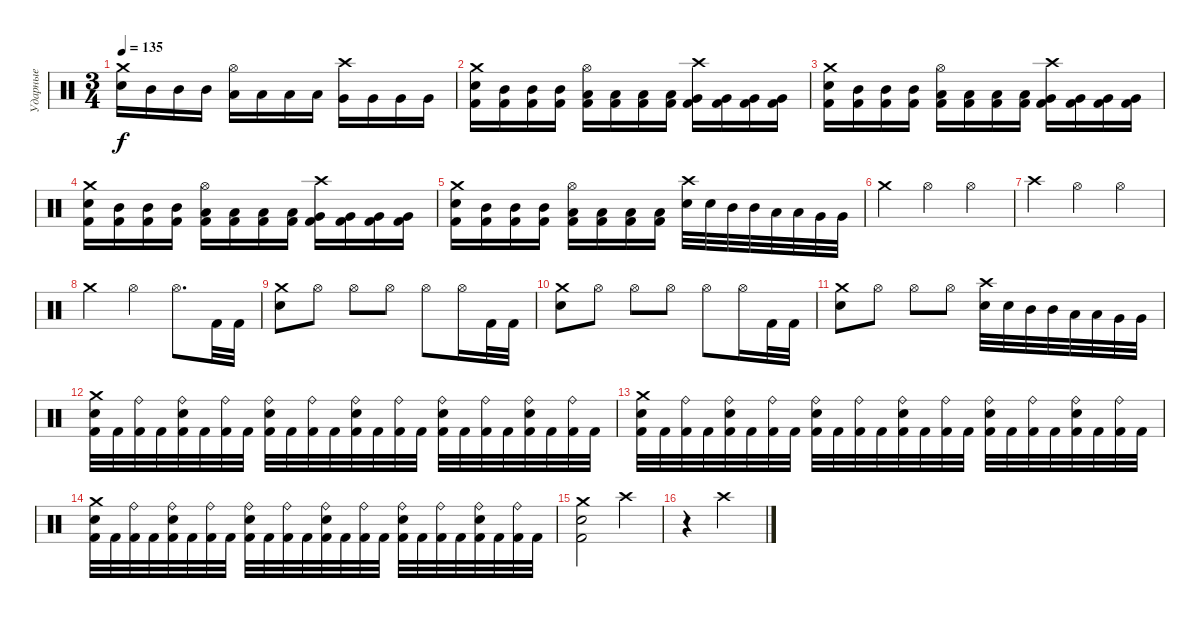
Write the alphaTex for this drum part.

\track ("Ударные" "Ударные") {instrument percussion}
\staff {score}
\articulation defaults
\ts (3 4)
\tempo 135
\clef neutral
\ks c
("Crash medium (hit)" "Electric Snare (hit)").16{dy f} "Mid Tom (hit)".16 "Mid Tom (hit)".16 "Mid Tom (hit)".16 ("Hi-Hat (open)" "Low Tom (hit)").16 "Low Tom (hit)".16 "Low Tom (hit)".16 "Low Tom (hit)".16 ("Crash high (hit)" "Very Low Tom (hit)").16 "Very Low Tom (hit)".16 "Very Low Tom (hit)".16 "Very Low Tom (hit)".16 |
("Crash medium (hit)" "Electric Snare (hit)" "Kick (hit) 2").16 ("Mid Tom (hit)" "Kick (hit) 2").16 ("Mid Tom (hit)" "Kick (hit) 2").16 ("Mid Tom (hit)" "Kick (hit) 2").16 ("Hi-Hat (open)" "Low Tom (hit)" "Kick (hit) 2").16 ("Low Tom (hit)" "Kick (hit) 2").16 ("Low Tom (hit)" "Kick (hit) 2").16 ("Low Tom (hit)" "Kick (hit) 2").16 ("Crash high (hit)" "Very Low Tom (hit)" "Kick (hit) 2").16 ("Very Low Tom (hit)" "Kick (hit) 2").16 ("Very Low Tom (hit)" "Kick (hit) 2").16 ("Very Low Tom (hit)" "Kick (hit) 2").16 |
("Crash medium (hit)" "Electric Snare (hit)" "Kick (hit) 2").16 ("Mid Tom (hit)" "Kick (hit) 2").16 ("Mid Tom (hit)" "Kick (hit) 2").16 ("Mid Tom (hit)" "Kick (hit) 2").16 ("Hi-Hat (open)" "Low Tom (hit)" "Kick (hit) 2").16 ("Low Tom (hit)" "Kick (hit) 2").16 ("Low Tom (hit)" "Kick (hit) 2").16 ("Low Tom (hit)" "Kick (hit) 2").16 ("Crash high (hit)" "Very Low Tom (hit)" "Kick (hit) 2").16 ("Very Low Tom (hit)" "Kick (hit) 2").16 ("Very Low Tom (hit)" "Kick (hit) 2").16 ("Very Low Tom (hit)" "Kick (hit) 2").16 |
("Crash medium (hit)" "Electric Snare (hit)" "Kick (hit) 2").16 ("Mid Tom (hit)" "Kick (hit) 2").16 ("Mid Tom (hit)" "Kick (hit) 2").16 ("Mid Tom (hit)" "Kick (hit) 2").16 ("Hi-Hat (open)" "Low Tom (hit)" "Kick (hit) 2").16 ("Low Tom (hit)" "Kick (hit) 2").16 ("Low Tom (hit)" "Kick (hit) 2").16 ("Low Tom (hit)" "Kick (hit) 2").16 ("Crash high (hit)" "Very Low Tom (hit)" "Kick (hit) 2").16 ("Very Low Tom (hit)" "Kick (hit) 2").16 ("Very Low Tom (hit)" "Kick (hit) 2").16 ("Very Low Tom (hit)" "Kick (hit) 2").16 |
("Crash medium (hit)" "Electric Snare (hit)" "Kick (hit) 2").16 ("Mid Tom (hit)" "Kick (hit) 2").16 ("Mid Tom (hit)" "Kick (hit) 2").16 ("Mid Tom (hit)" "Kick (hit) 2").16 ("Hi-Hat (open)" "Low Tom (hit)" "Kick (hit) 2").16 ("Low Tom (hit)" "Kick (hit) 2").16 ("Low Tom (hit)" "Kick (hit) 2").16 ("Low Tom (hit)" "Kick (hit) 2").16 ("Crash high (hit)" "Electric Snare (hit)").32 "Electric Snare (hit)".32 "Mid Tom (hit)".32 "Mid Tom (hit)".32 "Low Tom (hit)".32 "Low Tom (hit)".32 "Very Low Tom (hit)".32 "Very Low Tom (hit)".32 |
"Crash medium (hit)".4 "Hi-Hat (open)".4 "Hi-Hat (open)".4 |
"Crash high (hit)".4 "Hi-Hat (open)".4 "Hi-Hat (open)".4 |
"Crash medium (hit)".4 "Hi-Hat (open)".4 "Hi-Hat (open)".8{d} "Kick (hit) 2".32 "Kick (hit) 2".32 |
("Crash medium (hit)" "Electric Snare (hit)").8 "Hi-Hat (open)".8 "Hi-Hat (open)".8 "Hi-Hat (open)".8 "Hi-Hat (open)".8 "Hi-Hat (open)".16 "Kick (hit) 2".32 "Kick (hit) 2".32 |
("Crash medium (hit)" "Electric Snare (hit)").8 "Hi-Hat (open)".8 "Hi-Hat (open)".8 "Hi-Hat (open)".8 "Hi-Hat (open)".8 "Hi-Hat (open)".16 "Kick (hit) 2".32 "Kick (hit) 2".32 |
("Crash medium (hit)" "Electric Snare (hit)").8 "Hi-Hat (open)".8 "Hi-Hat (open)".8 "Hi-Hat (open)".8 ("Crash high (hit)" "Electric Snare (hit)").32 "Electric Snare (hit)".32 "Mid Tom (hit)".32 "Mid Tom (hit)".32 "Low Tom (hit)".32 "Low Tom (hit)".32 "Very Low Tom (hit)".32 "Very Low Tom (hit)".32 |
("Crash medium (hit)" "Electric Snare (hit)" "Kick (hit) 2").32 "Kick (hit) 2".32 ("Ride (bell)" "Kick (hit) 2").32 "Kick (hit) 2".32 ("Ride (bell)" "Electric Snare (hit)" "Kick (hit) 2").32 "Kick (hit) 2".32 ("Ride (bell)" "Kick (hit) 2").32 "Kick (hit) 2".32 ("Ride (bell)" "Electric Snare (hit)" "Kick (hit) 2").32 "Kick (hit) 2".32 ("Ride (bell)" "Kick (hit) 2").32 "Kick (hit) 2".32 ("Ride (bell)" "Electric Snare (hit)" "Kick (hit) 2").32 "Kick (hit) 2".32 ("Ride (bell)" "Kick (hit) 2").32 "Kick (hit) 2".32 ("Ride (bell)" "Electric Snare (hit)" "Kick (hit) 2").32 "Kick (hit) 2".32 ("Ride (bell)" "Kick (hit) 2").32 "Kick (hit) 2".32 ("Ride (bell)" "Electric Snare (hit)" "Kick (hit) 2").32 "Kick (hit) 2".32 ("Ride (bell)" "Kick (hit) 2").32 "Kick (hit) 2".32 |
("Crash medium (hit)" "Electric Snare (hit)" "Kick (hit) 2").32 "Kick (hit) 2".32 ("Ride (bell)" "Kick (hit) 2").32 "Kick (hit) 2".32 ("Ride (bell)" "Electric Snare (hit)" "Kick (hit) 2").32 "Kick (hit) 2".32 ("Ride (bell)" "Kick (hit) 2").32 "Kick (hit) 2".32 ("Ride (bell)" "Electric Snare (hit)" "Kick (hit) 2").32 "Kick (hit) 2".32 ("Ride (bell)" "Kick (hit) 2").32 "Kick (hit) 2".32 ("Ride (bell)" "Electric Snare (hit)" "Kick (hit) 2").32 "Kick (hit) 2".32 ("Ride (bell)" "Kick (hit) 2").32 "Kick (hit) 2".32 ("Ride (bell)" "Electric Snare (hit)" "Kick (hit) 2").32 "Kick (hit) 2".32 ("Ride (bell)" "Kick (hit) 2").32 "Kick (hit) 2".32 ("Ride (bell)" "Electric Snare (hit)" "Kick (hit) 2").32 "Kick (hit) 2".32 ("Ride (bell)" "Kick (hit) 2").32 "Kick (hit) 2".32 |
("Crash medium (hit)" "Electric Snare (hit)" "Kick (hit) 2").32 "Kick (hit) 2".32 ("Ride (bell)" "Kick (hit) 2").32 "Kick (hit) 2".32 ("Ride (bell)" "Electric Snare (hit)" "Kick (hit) 2").32 "Kick (hit) 2".32 ("Ride (bell)" "Kick (hit) 2").32 "Kick (hit) 2".32 ("Ride (bell)" "Electric Snare (hit)" "Kick (hit) 2").32 "Kick (hit) 2".32 ("Ride (bell)" "Kick (hit) 2").32 "Kick (hit) 2".32 ("Ride (bell)" "Electric Snare (hit)" "Kick (hit) 2").32 "Kick (hit) 2".32 ("Ride (bell)" "Kick (hit) 2").32 "Kick (hit) 2".32 ("Ride (bell)" "Electric Snare (hit)" "Kick (hit) 2").32 "Kick (hit) 2".32 ("Ride (bell)" "Kick (hit) 2").32 "Kick (hit) 2".32 ("Ride (bell)" "Electric Snare (hit)" "Kick (hit) 2").32 "Kick (hit) 2".32 ("Ride (bell)" "Kick (hit) 2").32 "Kick (hit) 2".32 |
("Crash medium (hit)" "Electric Snare (hit)" "Kick (hit) 2").2 "Crash high (hit)".4 |
r.4 "Crash high (hit)".2
